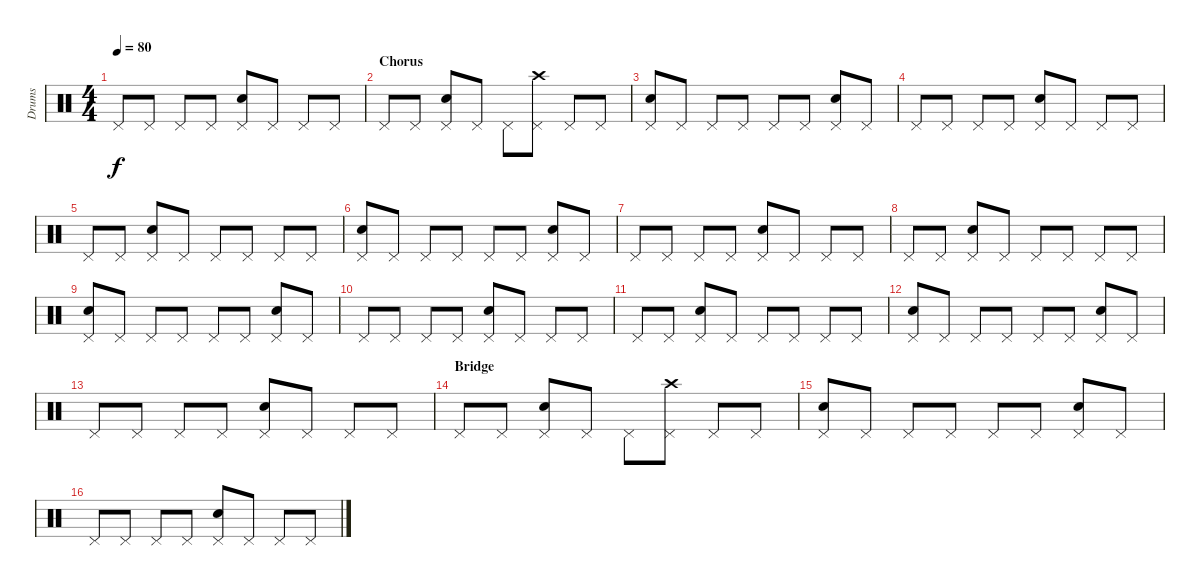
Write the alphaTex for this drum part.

\track ("Drums" "Drums") {instrument percussion}
\staff {score}
\articulation defaults
\ts (4 4)
\tempo 80
\clef neutral
\ks c "Pedal Hi-Hat (hit)".8{dy f} "Pedal Hi-Hat (hit)".8 "Pedal Hi-Hat (hit)".8 "Pedal Hi-Hat (hit)".8
("Electric Snare (hit)" "Pedal Hi-Hat (hit)").8 "Pedal Hi-Hat (hit)".8 "Pedal Hi-Hat (hit)".8 "Pedal Hi-Hat (hit)".8 |
\section ("" "Chorus")
"Pedal Hi-Hat (hit)".8 "Pedal Hi-Hat (hit)".8 ("Electric Snare (hit)" "Pedal Hi-Hat (hit)").8 "Pedal Hi-Hat (hit)".8 "Pedal Hi-Hat (hit)".8 ("Crash high (hit)" "Pedal Hi-Hat (hit)").8 "Pedal Hi-Hat (hit)".8 "Pedal Hi-Hat (hit)".8 |
("Electric Snare (hit)" "Pedal Hi-Hat (hit)").8 "Pedal Hi-Hat (hit)".8 "Pedal Hi-Hat (hit)".8 "Pedal Hi-Hat (hit)".8 "Pedal Hi-Hat (hit)".8 "Pedal Hi-Hat (hit)".8 ("Electric Snare (hit)" "Pedal Hi-Hat (hit)").8 "Pedal Hi-Hat (hit)".8 |
"Pedal Hi-Hat (hit)".8 "Pedal Hi-Hat (hit)".8 "Pedal Hi-Hat (hit)".8 "Pedal Hi-Hat (hit)".8 ("Electric Snare (hit)" "Pedal Hi-Hat (hit)").8 "Pedal Hi-Hat (hit)".8 "Pedal Hi-Hat (hit)".8 "Pedal Hi-Hat (hit)".8 |
"Pedal Hi-Hat (hit)".8 "Pedal Hi-Hat (hit)".8 ("Electric Snare (hit)" "Pedal Hi-Hat (hit)").8 "Pedal Hi-Hat (hit)".8 "Pedal Hi-Hat (hit)".8 "Pedal Hi-Hat (hit)".8 "Pedal Hi-Hat (hit)".8 "Pedal Hi-Hat (hit)".8 |
("Electric Snare (hit)" "Pedal Hi-Hat (hit)").8 "Pedal Hi-Hat (hit)".8 "Pedal Hi-Hat (hit)".8 "Pedal Hi-Hat (hit)".8 "Pedal Hi-Hat (hit)".8 "Pedal Hi-Hat (hit)".8 ("Electric Snare (hit)" "Pedal Hi-Hat (hit)").8 "Pedal Hi-Hat (hit)".8 |
"Pedal Hi-Hat (hit)".8 "Pedal Hi-Hat (hit)".8 "Pedal Hi-Hat (hit)".8 "Pedal Hi-Hat (hit)".8 ("Electric Snare (hit)" "Pedal Hi-Hat (hit)").8 "Pedal Hi-Hat (hit)".8 "Pedal Hi-Hat (hit)".8 "Pedal Hi-Hat (hit)".8 |
"Pedal Hi-Hat (hit)".8 "Pedal Hi-Hat (hit)".8 ("Electric Snare (hit)" "Pedal Hi-Hat (hit)").8 "Pedal Hi-Hat (hit)".8 "Pedal Hi-Hat (hit)".8 "Pedal Hi-Hat (hit)".8 "Pedal Hi-Hat (hit)".8 "Pedal Hi-Hat (hit)".8 |
("Electric Snare (hit)" "Pedal Hi-Hat (hit)").8 "Pedal Hi-Hat (hit)".8 "Pedal Hi-Hat (hit)".8 "Pedal Hi-Hat (hit)".8 "Pedal Hi-Hat (hit)".8 "Pedal Hi-Hat (hit)".8 ("Electric Snare (hit)" "Pedal Hi-Hat (hit)").8 "Pedal Hi-Hat (hit)".8 |
"Pedal Hi-Hat (hit)".8 "Pedal Hi-Hat (hit)".8 "Pedal Hi-Hat (hit)".8 "Pedal Hi-Hat (hit)".8 ("Electric Snare (hit)" "Pedal Hi-Hat (hit)").8 "Pedal Hi-Hat (hit)".8 "Pedal Hi-Hat (hit)".8 "Pedal Hi-Hat (hit)".8 |
"Pedal Hi-Hat (hit)".8 "Pedal Hi-Hat (hit)".8 ("Electric Snare (hit)" "Pedal Hi-Hat (hit)").8 "Pedal Hi-Hat (hit)".8 "Pedal Hi-Hat (hit)".8 "Pedal Hi-Hat (hit)".8 "Pedal Hi-Hat (hit)".8 "Pedal Hi-Hat (hit)".8 |
("Electric Snare (hit)" "Pedal Hi-Hat (hit)").8 "Pedal Hi-Hat (hit)".8 "Pedal Hi-Hat (hit)".8 "Pedal Hi-Hat (hit)".8 "Pedal Hi-Hat (hit)".8 "Pedal Hi-Hat (hit)".8 ("Electric Snare (hit)" "Pedal Hi-Hat (hit)").8 "Pedal Hi-Hat (hit)".8 |
"Pedal Hi-Hat (hit)".8 "Pedal Hi-Hat (hit)".8 "Pedal Hi-Hat (hit)".8 "Pedal Hi-Hat (hit)".8 ("Electric Snare (hit)" "Pedal Hi-Hat (hit)").8 "Pedal Hi-Hat (hit)".8 "Pedal Hi-Hat (hit)".8 "Pedal Hi-Hat (hit)".8 |
\section ("" "Bridge")
"Pedal Hi-Hat (hit)".8 "Pedal Hi-Hat (hit)".8 ("Electric Snare (hit)" "Pedal Hi-Hat (hit)").8 "Pedal Hi-Hat (hit)".8 "Pedal Hi-Hat (hit)".8 ("Crash high (hit)" "Pedal Hi-Hat (hit)").8 "Pedal Hi-Hat (hit)".8 "Pedal Hi-Hat (hit)".8 |
("Electric Snare (hit)" "Pedal Hi-Hat (hit)").8 "Pedal Hi-Hat (hit)".8 "Pedal Hi-Hat (hit)".8 "Pedal Hi-Hat (hit)".8 "Pedal Hi-Hat (hit)".8 "Pedal Hi-Hat (hit)".8 ("Electric Snare (hit)" "Pedal Hi-Hat (hit)").8 "Pedal Hi-Hat (hit)".8 |
"Pedal Hi-Hat (hit)".8 "Pedal Hi-Hat (hit)".8 "Pedal Hi-Hat (hit)".8 "Pedal Hi-Hat (hit)".8 ("Electric Snare (hit)" "Pedal Hi-Hat (hit)").8 "Pedal Hi-Hat (hit)".8 "Pedal Hi-Hat (hit)".8 "Pedal Hi-Hat (hit)".8
